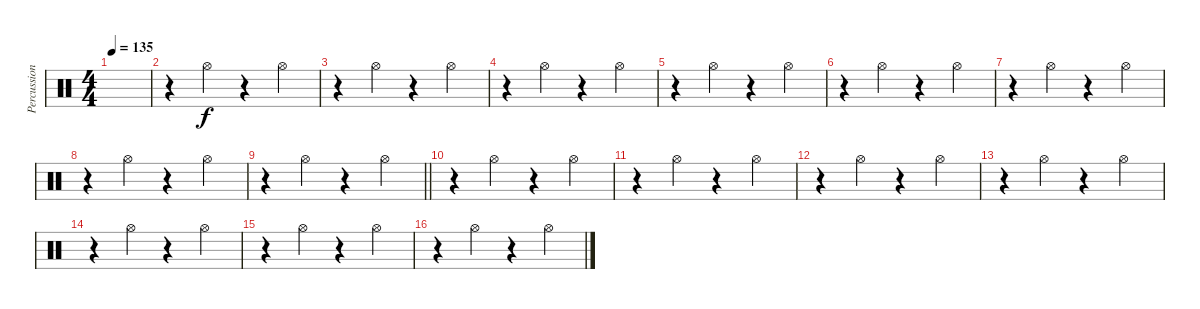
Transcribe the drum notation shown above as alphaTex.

\track ("Percussions 1" "Percussion") {instrument percussion}
\staff {score}
\articulation defaults
\ts (4 4)
\tempo 135
\clef neutral
\ks c
|
r.4 "Hi-Hat (open)".4 r.4 "Hi-Hat (open)".4 |
r.4 "Hi-Hat (open)".4 r.4 "Hi-Hat (open)".4 |
r.4 "Hi-Hat (open)".4 r.4 "Hi-Hat (open)".4 |
r.4 "Hi-Hat (open)".4 r.4 "Hi-Hat (open)".4 |
r.4 "Hi-Hat (open)".4 r.4 "Hi-Hat (open)".4 |
r.4 "Hi-Hat (open)".4 r.4 "Hi-Hat (open)".4 |
r.4 "Hi-Hat (open)".4 r.4 "Hi-Hat (open)".4 |
\barLineRight lightlight
r.4 "Hi-Hat (open)".4 r.4 "Hi-Hat (open)".4 |
r.4 "Hi-Hat (open)".4 r.4 "Hi-Hat (open)".4 |
r.4 "Hi-Hat (open)".4 r.4 "Hi-Hat (open)".4 |
r.4 "Hi-Hat (open)".4 r.4 "Hi-Hat (open)".4 |
r.4 "Hi-Hat (open)".4 r.4 "Hi-Hat (open)".4 |
r.4 "Hi-Hat (open)".4 r.4 "Hi-Hat (open)".4 |
r.4 "Hi-Hat (open)".4 r.4 "Hi-Hat (open)".4 |
r.4 "Hi-Hat (open)".4 r.4 "Hi-Hat (open)".4
